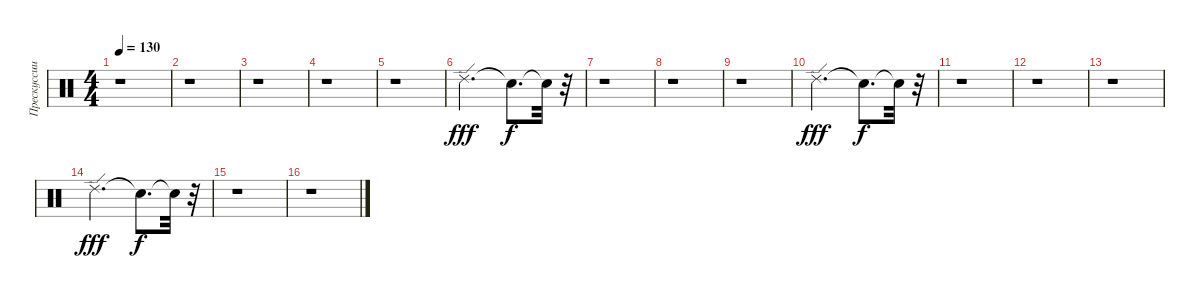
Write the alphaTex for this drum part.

\track ("Прескуссии 2" "Прескуссии") {instrument percussion}
\staff {score}
\articulation defaults
\ts (4 4)
\tempo 130
\clef neutral
\ks c
r.1{dy f} |
r.1 |
r.1 |
r.1 |
r.1 |
"Ride (edge) 2".2{d dy fff} "Snare (hit)"{t}.8{d dy f} "Snare (hit)"{t}.32 r.32 |
r.1 |
r.1 |
r.1 |
"Ride (edge) 2".2{d dy fff} "Snare (hit)"{t}.8{d dy f} "Snare (hit)"{t}.32 r.32 |
r.1 |
r.1 |
r.1 |
"Ride (edge) 2".2{d dy fff} "Snare (hit)"{t}.8{d dy f} "Snare (hit)"{t}.32 r.32 |
r.1 |
r.1
